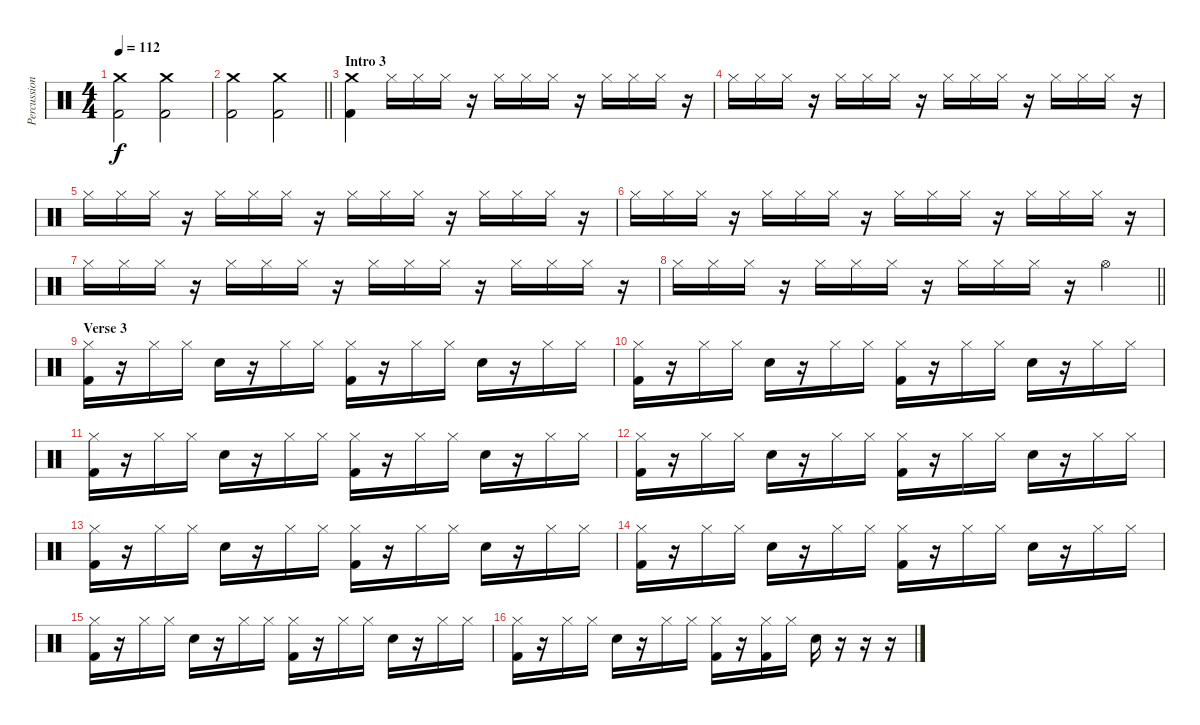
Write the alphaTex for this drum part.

\track ("Percussioni" "Percussion") {instrument percussion}
\staff {score}
\articulation defaults
\ts (4 4)
\tempo 112
\clef neutral
\ks c
("Kick (hit) 2" "Crash medium (hit)").2{dy f} ("Kick (hit) 2" "Crash medium (hit)").2 |
\barLineRight lightlight
("Kick (hit) 2" "Crash medium (hit)").2 ("Kick (hit) 2" "Crash medium (hit)").2 |
\section ("" "Intro 3")
("Kick (hit) 2" "Crash medium (hit)").4 "Hi-Hat (closed)".16 "Hi-Hat (closed)".16 "Hi-Hat (closed)".16 r.16 "Hi-Hat (closed)".16 "Hi-Hat (closed)".16 "Hi-Hat (closed)".16 r.16 "Hi-Hat (closed)".16 "Hi-Hat (closed)".16 "Hi-Hat (closed)".16 r.16 |
"Hi-Hat (closed)".16 "Hi-Hat (closed)".16 "Hi-Hat (closed)".16 r.16 "Hi-Hat (closed)".16 "Hi-Hat (closed)".16 "Hi-Hat (closed)".16 r.16 "Hi-Hat (closed)".16 "Hi-Hat (closed)".16 "Hi-Hat (closed)".16 r.16 "Hi-Hat (closed)".16 "Hi-Hat (closed)".16 "Hi-Hat (closed)".16 r.16 |
"Hi-Hat (closed)".16 "Hi-Hat (closed)".16 "Hi-Hat (closed)".16 r.16 "Hi-Hat (closed)".16 "Hi-Hat (closed)".16 "Hi-Hat (closed)".16 r.16 "Hi-Hat (closed)".16 "Hi-Hat (closed)".16 "Hi-Hat (closed)".16 r.16 "Hi-Hat (closed)".16 "Hi-Hat (closed)".16 "Hi-Hat (closed)".16 r.16 |
"Hi-Hat (closed)".16 "Hi-Hat (closed)".16 "Hi-Hat (closed)".16 r.16 "Hi-Hat (closed)".16 "Hi-Hat (closed)".16 "Hi-Hat (closed)".16 r.16 "Hi-Hat (closed)".16 "Hi-Hat (closed)".16 "Hi-Hat (closed)".16 r.16 "Hi-Hat (closed)".16 "Hi-Hat (closed)".16 "Hi-Hat (closed)".16 r.16 |
"Hi-Hat (closed)".16 "Hi-Hat (closed)".16 "Hi-Hat (closed)".16 r.16 "Hi-Hat (closed)".16 "Hi-Hat (closed)".16 "Hi-Hat (closed)".16 r.16 "Hi-Hat (closed)".16 "Hi-Hat (closed)".16 "Hi-Hat (closed)".16 r.16 "Hi-Hat (closed)".16 "Hi-Hat (closed)".16 "Hi-Hat (closed)".16 r.16 |
\barLineRight lightlight "Hi-Hat (closed)".16 "Hi-Hat (closed)".16 "Hi-Hat (closed)".16
r.16 "Hi-Hat (closed)".16 "Hi-Hat (closed)".16 "Hi-Hat (closed)".16 r.16 "Hi-Hat (closed)".16 "Hi-Hat (closed)".16 "Hi-Hat (closed)".16 r.16 "Hi-Hat (open)".4 |
\section ("" "Verse 3")
("Kick (hit) 2" "Hi-Hat (closed)").16 r.16 "Hi-Hat (closed)".16 "Hi-Hat (closed)".16 "Snare (hit) 2".16 r.16 "Hi-Hat (closed)".16 "Hi-Hat (closed)".16 ("Kick (hit) 2" "Hi-Hat (closed)").16 r.16 "Hi-Hat (closed)".16 "Hi-Hat (closed)".16 "Snare (hit) 2".16 r.16 "Hi-Hat (closed)".16 "Hi-Hat (closed)".16 |
("Kick (hit) 2" "Hi-Hat (closed)").16 r.16 "Hi-Hat (closed)".16 "Hi-Hat (closed)".16 "Snare (hit) 2".16 r.16 "Hi-Hat (closed)".16 "Hi-Hat (closed)".16 ("Kick (hit) 2" "Hi-Hat (closed)").16 r.16 "Hi-Hat (closed)".16 "Hi-Hat (closed)".16 "Snare (hit) 2".16 r.16 "Hi-Hat (closed)".16 "Hi-Hat (closed)".16 |
("Kick (hit) 2" "Hi-Hat (closed)").16 r.16 "Hi-Hat (closed)".16 "Hi-Hat (closed)".16 "Snare (hit) 2".16 r.16 "Hi-Hat (closed)".16 "Hi-Hat (closed)".16 ("Kick (hit) 2" "Hi-Hat (closed)").16 r.16 "Hi-Hat (closed)".16 "Hi-Hat (closed)".16 "Snare (hit) 2".16 r.16 "Hi-Hat (closed)".16 "Hi-Hat (closed)".16 |
("Kick (hit) 2" "Hi-Hat (closed)").16 r.16 "Hi-Hat (closed)".16 "Hi-Hat (closed)".16 "Snare (hit) 2".16 r.16 "Hi-Hat (closed)".16 "Hi-Hat (closed)".16 ("Kick (hit) 2" "Hi-Hat (closed)").16 r.16 "Hi-Hat (closed)".16 "Hi-Hat (closed)".16 "Snare (hit) 2".16 r.16 "Hi-Hat (closed)".16 "Hi-Hat (closed)".16 |
("Kick (hit) 2" "Hi-Hat (closed)").16 r.16 "Hi-Hat (closed)".16 "Hi-Hat (closed)".16 "Snare (hit) 2".16 r.16 "Hi-Hat (closed)".16 "Hi-Hat (closed)".16 ("Kick (hit) 2" "Hi-Hat (closed)").16 r.16 "Hi-Hat (closed)".16 "Hi-Hat (closed)".16 "Snare (hit) 2".16 r.16 "Hi-Hat (closed)".16 "Hi-Hat (closed)".16 |
("Kick (hit) 2" "Hi-Hat (closed)").16 r.16 "Hi-Hat (closed)".16 "Hi-Hat (closed)".16 "Snare (hit) 2".16 r.16 "Hi-Hat (closed)".16 "Hi-Hat (closed)".16 ("Kick (hit) 2" "Hi-Hat (closed)").16 r.16 "Hi-Hat (closed)".16 "Hi-Hat (closed)".16 "Snare (hit) 2".16 r.16 "Hi-Hat (closed)".16 "Hi-Hat (closed)".16 |
("Kick (hit) 2" "Hi-Hat (closed)").16 r.16 "Hi-Hat (closed)".16 "Hi-Hat (closed)".16 "Snare (hit) 2".16 r.16 "Hi-Hat (closed)".16 "Hi-Hat (closed)".16 ("Kick (hit) 2" "Hi-Hat (closed)").16 r.16 "Hi-Hat (closed)".16 "Hi-Hat (closed)".16 "Snare (hit) 2".16 r.16 "Hi-Hat (closed)".16 "Hi-Hat (closed)".16 |
("Kick (hit) 2" "Hi-Hat (closed)").16 r.16 "Hi-Hat (closed)".16 "Hi-Hat (closed)".16 "Snare (hit) 2".16 r.16 "Hi-Hat (closed)".16 "Hi-Hat (closed)".16 ("Kick (hit) 2" "Hi-Hat (closed)").16 r.16 ("Kick (hit) 2" "Hi-Hat (closed)").16 "Hi-Hat (closed)".16 "Snare (hit) 2".16 r.16 r.16 r.16
